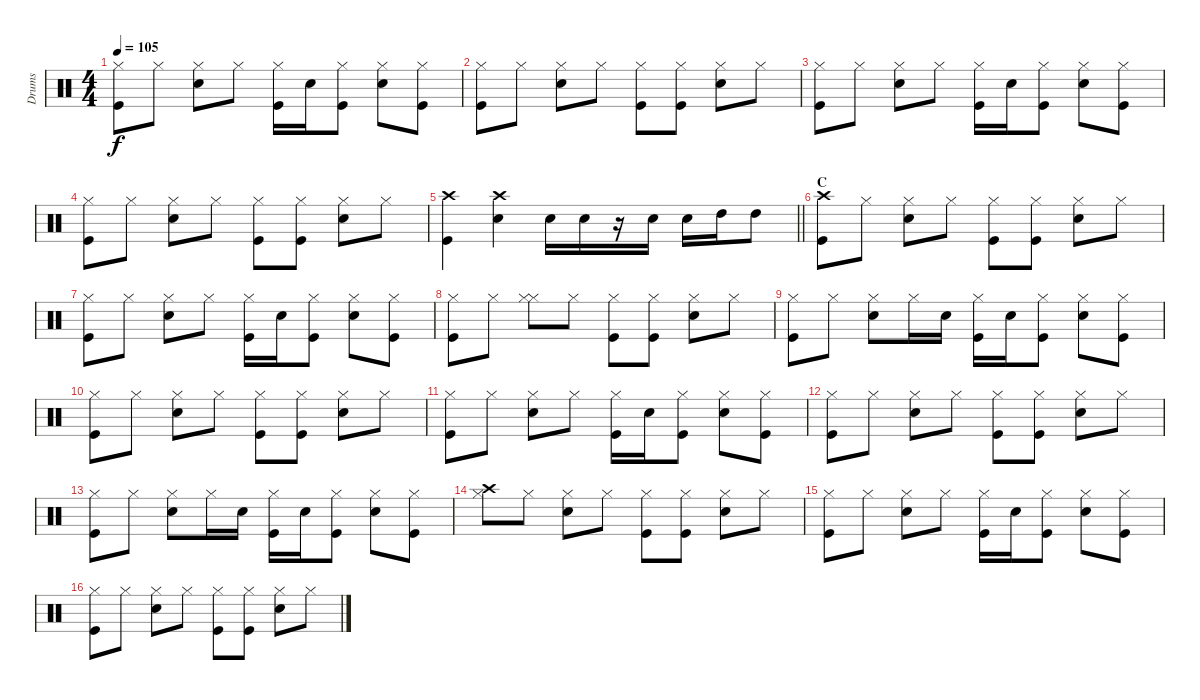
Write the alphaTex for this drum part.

\track ("Drums" "Drums") {instrument percussion}
\staff {score}
\articulation defaults
\ts (4 4)
\tempo 105
\clef neutral
\ks c
("Hi-Hat (closed)" "Kick (hit)").8{dy f} "Hi-Hat (closed)".8 ("Hi-Hat (closed)" "Electric Snare (hit)").8 "Hi-Hat (closed)".8 ("Hi-Hat (closed)" "Kick (hit)").16 "Electric Snare (hit)".16 ("Hi-Hat (closed)" "Kick (hit)").8 ("Hi-Hat (closed)" "Electric Snare (hit)").8 ("Hi-Hat (closed)" "Kick (hit)").8 |
("Hi-Hat (closed)" "Kick (hit)").8 "Hi-Hat (closed)".8 ("Hi-Hat (closed)" "Electric Snare (hit)").8 "Hi-Hat (closed)".8 ("Hi-Hat (closed)" "Kick (hit)").8 ("Hi-Hat (closed)" "Kick (hit)").8 ("Hi-Hat (closed)" "Electric Snare (hit)").8 "Hi-Hat (closed)".8 |
("Hi-Hat (closed)" "Kick (hit)").8 "Hi-Hat (closed)".8 ("Hi-Hat (closed)" "Electric Snare (hit)").8 "Hi-Hat (closed)".8 ("Hi-Hat (closed)" "Kick (hit)").16 "Electric Snare (hit)".16 ("Hi-Hat (closed)" "Kick (hit)").8 ("Hi-Hat (closed)" "Electric Snare (hit)").8 ("Hi-Hat (closed)" "Kick (hit)").8 |
("Hi-Hat (closed)" "Kick (hit)").8 "Hi-Hat (closed)".8 ("Hi-Hat (closed)" "Electric Snare (hit)").8 "Hi-Hat (closed)".8 ("Hi-Hat (closed)" "Kick (hit)").8 ("Hi-Hat (closed)" "Kick (hit)").8 ("Hi-Hat (closed)" "Electric Snare (hit)").8 "Hi-Hat (closed)".8 |
\barLineRight lightlight
("Crash high (hit)" "Kick (hit)").4 ("Crash high (hit)" "Electric Snare (hit)").4 "Electric Snare (hit)".16 "Electric Snare (hit)".16 r.16 "Electric Snare (hit)".16 "Electric Snare (hit)".16 "High Tom (hit)".16 "High Tom (hit)".8 |
\section ("" "C")
("Crash high (hit)" "Kick (hit)").8 "Hi-Hat (closed)".8 ("Hi-Hat (closed)" "Electric Snare (hit)").8 "Hi-Hat (closed)".8 ("Hi-Hat (closed)" "Kick (hit)").8 ("Hi-Hat (closed)" "Kick (hit)").8 ("Hi-Hat (closed)" "Electric Snare (hit)").8 "Hi-Hat (closed)".8 |
("Hi-Hat (closed)" "Kick (hit)").8 "Hi-Hat (closed)".8 ("Hi-Hat (closed)" "Electric Snare (hit)").8 "Hi-Hat (closed)".8 ("Hi-Hat (closed)" "Kick (hit)").16 "Electric Snare (hit)".16 ("Hi-Hat (closed)" "Kick (hit)").8 ("Hi-Hat (closed)" "Electric Snare (hit)").8 ("Hi-Hat (closed)" "Kick (hit)").8 |
("Hi-Hat (closed)" "Kick (hit)").8 "Hi-Hat (closed)".8 ("Hi-Hat (closed)" "Hi-Hat (closed)").8 "Hi-Hat (closed)".8 ("Hi-Hat (closed)" "Kick (hit)").8 ("Hi-Hat (closed)" "Kick (hit)").8 ("Hi-Hat (closed)" "Electric Snare (hit)").8 "Hi-Hat (closed)".8 |
("Hi-Hat (closed)" "Kick (hit)").8 "Hi-Hat (closed)".8 ("Hi-Hat (closed)" "Electric Snare (hit)").8 "Hi-Hat (closed)".16 "Electric Snare (hit)".16 ("Hi-Hat (closed)" "Kick (hit)").16 "Electric Snare (hit)".16 ("Hi-Hat (closed)" "Kick (hit)").8 ("Hi-Hat (closed)" "Electric Snare (hit)").8 ("Hi-Hat (closed)" "Kick (hit)").8 |
("Hi-Hat (closed)" "Kick (hit)").8 "Hi-Hat (closed)".8 ("Hi-Hat (closed)" "Electric Snare (hit)").8 "Hi-Hat (closed)".8 ("Hi-Hat (closed)" "Kick (hit)").8 ("Hi-Hat (closed)" "Kick (hit)").8 ("Hi-Hat (closed)" "Electric Snare (hit)").8 "Hi-Hat (closed)".8 |
("Hi-Hat (closed)" "Kick (hit)").8 "Hi-Hat (closed)".8 ("Hi-Hat (closed)" "Electric Snare (hit)").8 "Hi-Hat (closed)".8 ("Hi-Hat (closed)" "Kick (hit)").16 "Electric Snare (hit)".16 ("Hi-Hat (closed)" "Kick (hit)").8 ("Hi-Hat (closed)" "Electric Snare (hit)").8 ("Hi-Hat (closed)" "Kick (hit)").8 |
("Hi-Hat (closed)" "Kick (hit)").8 "Hi-Hat (closed)".8 ("Hi-Hat (closed)" "Electric Snare (hit)").8 "Hi-Hat (closed)".8 ("Hi-Hat (closed)" "Kick (hit)").8 ("Hi-Hat (closed)" "Kick (hit)").8 ("Hi-Hat (closed)" "Electric Snare (hit)").8 "Hi-Hat (closed)".8 |
("Hi-Hat (closed)" "Kick (hit)").8 "Hi-Hat (closed)".8 ("Hi-Hat (closed)" "Electric Snare (hit)").8 "Hi-Hat (closed)".16 "Electric Snare (hit)".16 ("Hi-Hat (closed)" "Kick (hit)").16 "Electric Snare (hit)".16 ("Hi-Hat (closed)" "Kick (hit)").8 ("Hi-Hat (closed)" "Electric Snare (hit)").8 ("Hi-Hat (closed)" "Kick (hit)").8 |
("Crash high (hit)" "Hi-Hat (closed)").8 "Hi-Hat (closed)".8 ("Hi-Hat (closed)" "Electric Snare (hit)").8 "Hi-Hat (closed)".8 ("Hi-Hat (closed)" "Kick (hit)").8 ("Hi-Hat (closed)" "Kick (hit)").8 ("Hi-Hat (closed)" "Electric Snare (hit)").8 "Hi-Hat (closed)".8 |
("Hi-Hat (closed)" "Kick (hit)").8 "Hi-Hat (closed)".8 ("Hi-Hat (closed)" "Electric Snare (hit)").8 "Hi-Hat (closed)".8 ("Hi-Hat (closed)" "Kick (hit)").16 "Electric Snare (hit)".16 ("Hi-Hat (closed)" "Kick (hit)").8 ("Hi-Hat (closed)" "Electric Snare (hit)").8 ("Hi-Hat (closed)" "Kick (hit)").8 |
("Hi-Hat (closed)" "Kick (hit)").8 "Hi-Hat (closed)".8 ("Hi-Hat (closed)" "Electric Snare (hit)").8 "Hi-Hat (closed)".8 ("Hi-Hat (closed)" "Kick (hit)").8 ("Hi-Hat (closed)" "Kick (hit)").8 ("Hi-Hat (closed)" "Electric Snare (hit)").8 "Hi-Hat (closed)".8
